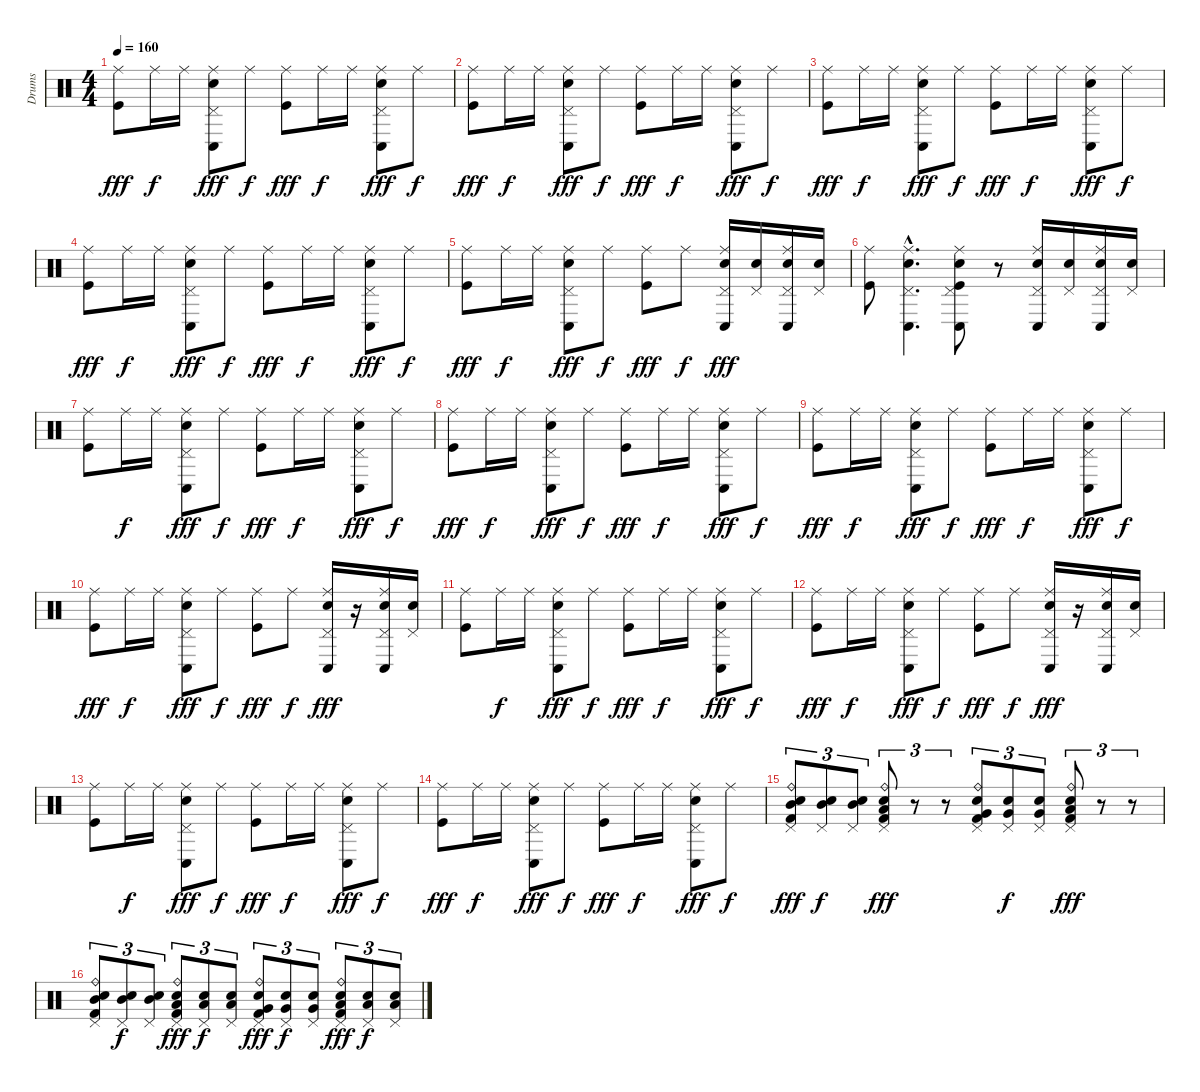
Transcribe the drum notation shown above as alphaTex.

\track ("Drums" "Drums") {instrument percussion}
\staff {score}
\articulation defaults
\ts (4 4)
\tempo 160
\clef neutral
\ks c
("Ride (middle)" "Kick (hit)").8{dy fff} "Ride (middle)".16{dy f} "Ride (middle)".16 ("Ride (middle)" "Pedal Hi-Hat (hit)" "Conga low (hit)" "Electric Snare (hit)").8{dy fff} "Ride (middle)".8{dy f} ("Ride (middle)" "Kick (hit)").8{dy fff} "Ride (middle)".16{dy f} "Ride (middle)".16 ("Ride (middle)" "Pedal Hi-Hat (hit)" "Conga low (hit)" "Electric Snare (hit)").8{dy fff} "Ride (middle)".8{dy f} |
("Ride (middle)" "Kick (hit)").8{dy fff} "Ride (middle)".16{dy f} "Ride (middle)".16 ("Ride (middle)" "Pedal Hi-Hat (hit)" "Conga low (hit)" "Electric Snare (hit)").8{dy fff} "Ride (middle)".8{dy f} ("Ride (middle)" "Kick (hit)").8{dy fff} "Ride (middle)".16{dy f} "Ride (middle)".16 ("Ride (middle)" "Pedal Hi-Hat (hit)" "Conga low (hit)" "Electric Snare (hit)").8{dy fff} "Ride (middle)".8{dy f} |
("Ride (middle)" "Kick (hit)").8{dy fff} "Ride (middle)".16{dy f} "Ride (middle)".16 ("Ride (middle)" "Pedal Hi-Hat (hit)" "Conga low (hit)" "Electric Snare (hit)").8{dy fff} "Ride (middle)".8{dy f} ("Ride (middle)" "Kick (hit)").8{dy fff} "Ride (middle)".16{dy f} "Ride (middle)".16 ("Ride (middle)" "Pedal Hi-Hat (hit)" "Conga low (hit)" "Electric Snare (hit)").8{dy fff} "Ride (middle)".8{dy f} |
("Ride (middle)" "Kick (hit)").8{dy fff} "Ride (middle)".16{dy f} "Ride (middle)".16 ("Ride (middle)" "Pedal Hi-Hat (hit)" "Conga low (hit)" "Electric Snare (hit)").8{dy fff} "Ride (middle)".8{dy f} ("Ride (middle)" "Kick (hit)").8{dy fff} "Ride (middle)".16{dy f} "Ride (middle)".16 ("Ride (middle)" "Pedal Hi-Hat (hit)" "Conga low (hit)" "Electric Snare (hit)").8{dy fff} "Ride (middle)".8{dy f} |
("Ride (middle)" "Kick (hit)").8{dy fff} "Ride (middle)".16{dy f} "Ride (middle)".16 ("Ride (middle)" "Pedal Hi-Hat (hit)" "Conga low (hit)" "Electric Snare (hit)").8{dy fff} "Ride (middle)".8{dy f} ("Ride (middle)" "Kick (hit)").8{dy fff} "Ride (middle)".8{dy f} ("Ride (middle)" "Pedal Hi-Hat (hit)" "Conga low (hit)" "Electric Snare (hit)").16{dy fff} ("Pedal Hi-Hat (hit)" "Electric Snare (hit)").16 ("Ride (middle)" "Pedal Hi-Hat (hit)" "Conga low (hit)" "Electric Snare (hit)").16 ("Pedal Hi-Hat (hit)" "Electric Snare (hit)").16 |
("Ride (middle)" "Kick (hit)").8 ("Ride (middle)"{hac} "Pedal Hi-Hat (hit)"{hac} "Conga low (hit)"{hac} "Electric Snare (hit)"{hac}).4{d} ("Ride (middle)" "Pedal Hi-Hat (hit)" "Conga low (hit)" "Electric Snare (hit)" "Kick (hit)").8 r.8 ("Ride (middle)" "Pedal Hi-Hat (hit)" "Conga low (hit)" "Electric Snare (hit)").16 ("Pedal Hi-Hat (hit)" "Electric Snare (hit)").16 ("Ride (middle)" "Pedal Hi-Hat (hit)" "Conga low (hit)" "Electric Snare (hit)").16 ("Pedal Hi-Hat (hit)" "Electric Snare (hit)").16 |
("Ride (middle)" "Kick (hit)").8 "Ride (middle)".16{dy f} "Ride (middle)".16 ("Ride (middle)" "Pedal Hi-Hat (hit)" "Conga low (hit)" "Electric Snare (hit)").8{dy fff} "Ride (middle)".8{dy f} ("Ride (middle)" "Kick (hit)").8{dy fff} "Ride (middle)".16{dy f} "Ride (middle)".16 ("Ride (middle)" "Pedal Hi-Hat (hit)" "Conga low (hit)" "Electric Snare (hit)").8{dy fff} "Ride (middle)".8{dy f} |
("Ride (middle)" "Kick (hit)").8{dy fff} "Ride (middle)".16{dy f} "Ride (middle)".16 ("Ride (middle)" "Pedal Hi-Hat (hit)" "Conga low (hit)" "Electric Snare (hit)").8{dy fff} "Ride (middle)".8{dy f} ("Ride (middle)" "Kick (hit)").8{dy fff} "Ride (middle)".16{dy f} "Ride (middle)".16 ("Ride (middle)" "Pedal Hi-Hat (hit)" "Conga low (hit)" "Electric Snare (hit)").8{dy fff} "Ride (middle)".8{dy f} |
("Ride (middle)" "Kick (hit)").8{dy fff} "Ride (middle)".16{dy f} "Ride (middle)".16 ("Ride (middle)" "Pedal Hi-Hat (hit)" "Conga low (hit)" "Electric Snare (hit)").8{dy fff} "Ride (middle)".8{dy f} ("Ride (middle)" "Kick (hit)").8{dy fff} "Ride (middle)".16{dy f} "Ride (middle)".16 ("Ride (middle)" "Pedal Hi-Hat (hit)" "Conga low (hit)" "Electric Snare (hit)").8{dy fff} "Ride (middle)".8{dy f} |
("Ride (middle)" "Kick (hit)").8{dy fff} "Ride (middle)".16{dy f} "Ride (middle)".16 ("Ride (middle)" "Pedal Hi-Hat (hit)" "Conga low (hit)" "Electric Snare (hit)").8{dy fff} "Ride (middle)".8{dy f} ("Ride (middle)" "Kick (hit)").8{dy fff} "Ride (middle)".8{dy f} ("Ride (middle)" "Pedal Hi-Hat (hit)" "Conga low (hit)" "Electric Snare (hit)").16{dy fff} r.16 ("Ride (middle)" "Pedal Hi-Hat (hit)" "Conga low (hit)" "Electric Snare (hit)").16 ("Pedal Hi-Hat (hit)" "Electric Snare (hit)").16 |
("Ride (middle)" "Kick (hit)").8 "Ride (middle)".16{dy f} "Ride (middle)".16 ("Ride (middle)" "Pedal Hi-Hat (hit)" "Conga low (hit)" "Electric Snare (hit)").8{dy fff} "Ride (middle)".8{dy f} ("Ride (middle)" "Kick (hit)").8{dy fff} "Ride (middle)".16{dy f} "Ride (middle)".16 ("Ride (middle)" "Pedal Hi-Hat (hit)" "Conga low (hit)" "Electric Snare (hit)").8{dy fff} "Ride (middle)".8{dy f} |
("Ride (middle)" "Kick (hit)").8{dy fff} "Ride (middle)".16{dy f} "Ride (middle)".16 ("Ride (middle)" "Pedal Hi-Hat (hit)" "Conga low (hit)" "Electric Snare (hit)").8{dy fff} "Ride (middle)".8{dy f} ("Ride (middle)" "Kick (hit)").8{dy fff} "Ride (middle)".8{dy f} ("Ride (middle)" "Pedal Hi-Hat (hit)" "Conga low (hit)" "Electric Snare (hit)").16{dy fff} r.16 ("Ride (middle)" "Pedal Hi-Hat (hit)" "Conga low (hit)" "Electric Snare (hit)").16 ("Pedal Hi-Hat (hit)" "Electric Snare (hit)").16 |
("Ride (middle)" "Kick (hit)").8 "Ride (middle)".16{dy f} "Ride (middle)".16 ("Ride (middle)" "Pedal Hi-Hat (hit)" "Conga low (hit)" "Electric Snare (hit)").8{dy fff} "Ride (middle)".8{dy f} ("Ride (middle)" "Kick (hit)").8{dy fff} "Ride (middle)".16{dy f} "Ride (middle)".16 ("Ride (middle)" "Pedal Hi-Hat (hit)" "Conga low (hit)" "Electric Snare (hit)").8{dy fff} "Ride (middle)".8{dy f} |
("Ride (middle)" "Kick (hit)").8{dy fff} "Ride (middle)".16{dy f} "Ride (middle)".16 ("Ride (middle)" "Pedal Hi-Hat (hit)" "Conga low (hit)" "Electric Snare (hit)").8{dy fff} "Ride (middle)".8{dy f} ("Ride (middle)" "Kick (hit)").8{dy fff} "Ride (middle)".16{dy f} "Ride (middle)".16 ("Ride (middle)" "Pedal Hi-Hat (hit)" "Conga low (hit)" "Electric Snare (hit)").8{dy fff} "Ride (middle)".8{dy f} |
("Ride (bell)" "Pedal Hi-Hat (hit)" "Mid Tom (hit)" "Electric Snare (hit)" "Kick (hit) 2").8{tu (3 2) dy fff} ("Pedal Hi-Hat (hit)" "Mid Tom (hit)" "Electric Snare (hit)").8{tu (3 2) dy f} ("Pedal Hi-Hat (hit)" "Mid Tom (hit)" "Electric Snare (hit)").8{tu (3 2)} ("Ride (bell)" "Pedal Hi-Hat (hit)" "Low Tom (hit)" "Electric Snare (hit)" "Kick (hit) 2").8{tu (3 2) dy fff} r.8{tu (3 2)} r.8{tu (3 2)} ("Ride (bell)" "Pedal Hi-Hat (hit)" "Very Low Tom (hit)" "Electric Snare (hit)" "Kick (hit) 2").8{tu (3 2)} ("Pedal Hi-Hat (hit)" "Very Low Tom (hit)" "Electric Snare (hit)").8{tu (3 2) dy f} ("Pedal Hi-Hat (hit)" "Very Low Tom (hit)" "Electric Snare (hit)").8{tu (3 2)} ("Ride (bell)" "Pedal Hi-Hat (hit)" "Low Floor Tom (hit)" "Electric Snare (hit)" "Kick (hit) 2").8{tu (3 2) dy fff} r.8{tu (3 2)} r.8{tu (3 2)} |
("Ride (bell)" "Pedal Hi-Hat (hit)" "Mid Tom (hit)" "Electric Snare (hit)" "Kick (hit) 2").8{tu (3 2)} ("Pedal Hi-Hat (hit)" "Mid Tom (hit)" "Electric Snare (hit)").8{tu (3 2) dy f} ("Pedal Hi-Hat (hit)" "Mid Tom (hit)" "Electric Snare (hit)").8{tu (3 2)} ("Ride (bell)" "Pedal Hi-Hat (hit)" "Low Tom (hit)" "Electric Snare (hit)" "Kick (hit) 2").8{tu (3 2) dy fff} ("Pedal Hi-Hat (hit)" "Low Tom (hit)" "Electric Snare (hit)").8{tu (3 2) dy f} ("Pedal Hi-Hat (hit)" "Low Tom (hit)" "Electric Snare (hit)").8{tu (3 2)} ("Ride (bell)" "Pedal Hi-Hat (hit)" "Very Low Tom (hit)" "Electric Snare (hit)" "Kick (hit) 2").8{tu (3 2) dy fff} ("Pedal Hi-Hat (hit)" "Very Low Tom (hit)" "Electric Snare (hit)").8{tu (3 2) dy f} ("Pedal Hi-Hat (hit)" "Very Low Tom (hit)" "Electric Snare (hit)").8{tu (3 2)} ("Ride (bell)" "Pedal Hi-Hat (hit)" "Low Floor Tom (hit)" "Electric Snare (hit)" "Kick (hit) 2").8{tu (3 2) dy fff} ("Pedal Hi-Hat (hit)" "Low Floor Tom (hit)" "Electric Snare (hit)").8{tu (3 2) dy f} ("Pedal Hi-Hat (hit)" "Low Floor Tom (hit)" "Electric Snare (hit)").8{tu (3 2)}
